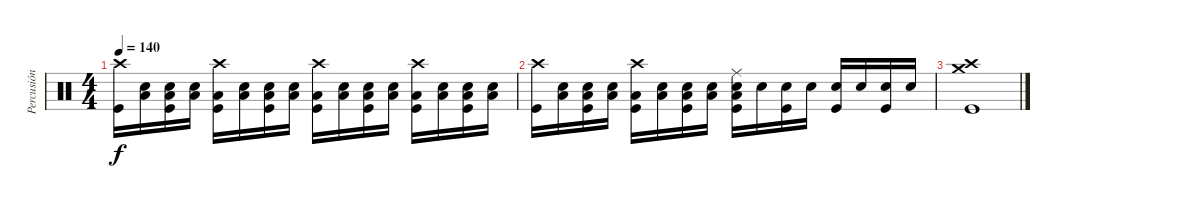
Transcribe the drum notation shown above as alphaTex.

\track ("Percusión" "Percusión") {instrument percussion}
\staff {score}
\articulation defaults
\ts (4 4)
\tempo 140
\clef neutral
\ks c
("Crash high (hit)" "Kick (hit)").16{dy f} ("Snare (hit) 2" "Low Floor Tom (hit)").16 ("Snare (hit) 2" "Kick (hit)" "Low Floor Tom (hit)").16 ("Snare (hit) 2" "Low Floor Tom (hit)").16 ("Crash high (hit)" "Kick (hit)" "Low Floor Tom (hit)").16 ("Snare (hit) 2" "Low Floor Tom (hit)").16 ("Snare (hit) 2" "Kick (hit)" "Low Floor Tom (hit)").16 ("Snare (hit) 2" "Low Floor Tom (hit)").16 ("Crash high (hit)" "Kick (hit)" "Low Floor Tom (hit)").16 ("Snare (hit) 2" "Low Floor Tom (hit)").16 ("Snare (hit) 2" "Kick (hit)" "Low Floor Tom (hit)").16 ("Snare (hit) 2" "Low Floor Tom (hit)").16 ("Crash high (hit)" "Kick (hit)" "Low Floor Tom (hit)").16 ("Snare (hit) 2" "Low Floor Tom (hit)").16 ("Snare (hit) 2" "Kick (hit)" "Low Floor Tom (hit)").16 ("Snare (hit) 2" "Low Floor Tom (hit)").16 |
("Crash high (hit)" "Kick (hit)").16 ("Snare (hit) 2" "Low Floor Tom (hit)").16 ("Snare (hit) 2" "Kick (hit)" "Low Floor Tom (hit)").16 ("Snare (hit) 2" "Low Floor Tom (hit)").16 ("Crash high (hit)" "Kick (hit)" "Low Floor Tom (hit)").16 ("Snare (hit) 2" "Low Floor Tom (hit)").16 ("Snare (hit) 2" "Kick (hit)" "Low Floor Tom (hit)").16 ("Snare (hit) 2" "Low Floor Tom (hit)").16 ("Snare (hit) 2" "Ride (middle)" "Kick (hit)" "Low Floor Tom (hit)").16 "Snare (hit) 2".16 ("Snare (hit) 2" "Kick (hit)").16 "Snare (hit) 2".16 ("Snare (hit) 2" "Kick (hit)").16 "Snare (hit) 2".16 ("Snare (hit) 2" "Kick (hit)").16 "Snare (hit) 2".16 |
("Crash high (hit)" "Crash medium (hit)" "Kick (hit)").1
